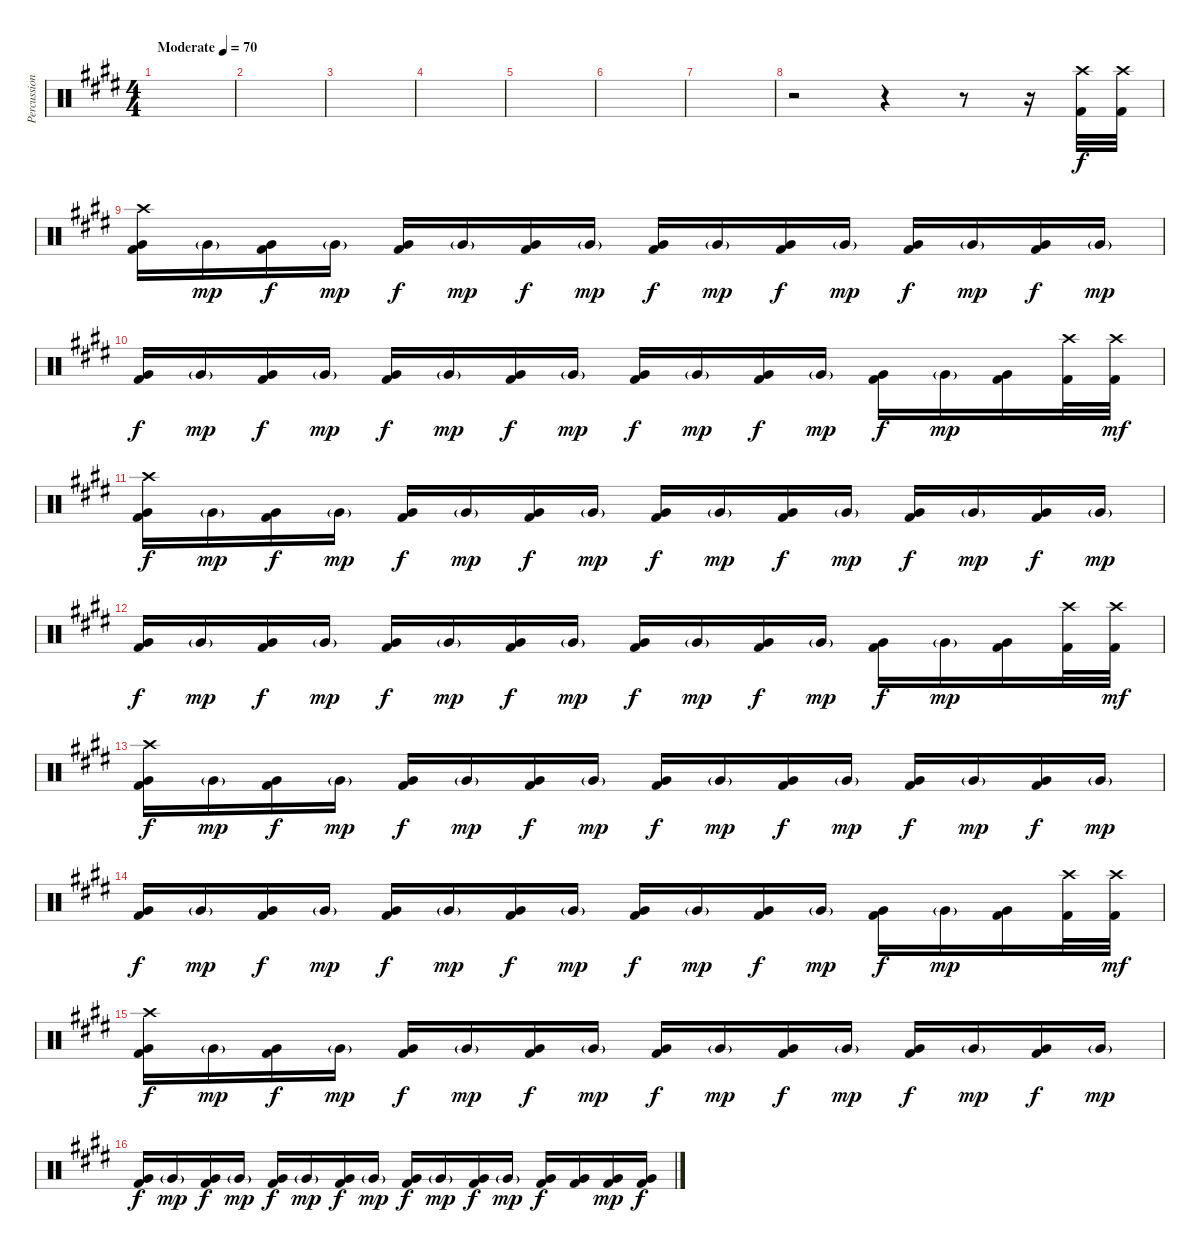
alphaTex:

\track ("Percussion" "Percussion") {instrument percussion}
\staff {score}
\articulation defaults
\ts (4 4)
\tempo (70 "Moderate")
\clef neutral
\ks e
|
|
|
|
|
|
|
r.2 r.4 r.8 r.16 ("Crash high (hit)" "Kick (hit) 2").32 ("Crash high (hit)" "Kick (hit) 2").32 |
("Crash high (hit)" "Very Low Tom (hit)" "Kick (hit) 2").16{dy f} "Very Low Tom (hit)"{g}.16{dy mp} ("Very Low Tom (hit)" "Kick (hit) 2").16{dy f} "Very Low Tom (hit)"{g}.16{dy mp} ("Very Low Tom (hit)" "Kick (hit) 2").16{dy f} "Very Low Tom (hit)"{g}.16{dy mp} ("Very Low Tom (hit)" "Kick (hit) 2").16{dy f} "Very Low Tom (hit)"{g}.16{dy mp} ("Very Low Tom (hit)" "Kick (hit) 2").16{dy f} "Very Low Tom (hit)"{g}.16{dy mp} ("Very Low Tom (hit)" "Kick (hit) 2").16{dy f} "Very Low Tom (hit)"{g}.16{dy mp} ("Very Low Tom (hit)" "Kick (hit) 2").16{dy f} "Very Low Tom (hit)"{g}.16{dy mp} ("Very Low Tom (hit)" "Kick (hit) 2").16{dy f} "Very Low Tom (hit)"{g}.16{dy mp} |
("Very Low Tom (hit)" "Kick (hit) 2").16{dy f} "Very Low Tom (hit)"{g}.16{dy mp} ("Very Low Tom (hit)" "Kick (hit) 2").16{dy f} "Very Low Tom (hit)"{g}.16{dy mp} ("Very Low Tom (hit)" "Kick (hit) 2").16{dy f} "Very Low Tom (hit)"{g}.16{dy mp} ("Very Low Tom (hit)" "Kick (hit) 2").16{dy f} "Very Low Tom (hit)"{g}.16{dy mp} ("Very Low Tom (hit)" "Kick (hit) 2").16{dy f} "Very Low Tom (hit)"{g}.16{dy mp} ("Very Low Tom (hit)" "Kick (hit) 2").16{dy f} "Very Low Tom (hit)"{g}.16{dy mp} ("Very Low Tom (hit)" "Kick (hit) 2").16{dy f} "Very Low Tom (hit)"{g}.16{dy mp} ("Very Low Tom (hit)" "Kick (hit) 2").16 ("Crash high (hit)" "Kick (hit) 2").32 ("Crash high (hit)" "Kick (hit) 2").32{dy mf} |
("Crash high (hit)" "Very Low Tom (hit)" "Kick (hit) 2").16{dy f} "Very Low Tom (hit)"{g}.16{dy mp} ("Very Low Tom (hit)" "Kick (hit) 2").16{dy f} "Very Low Tom (hit)"{g}.16{dy mp} ("Very Low Tom (hit)" "Kick (hit) 2").16{dy f} "Very Low Tom (hit)"{g}.16{dy mp} ("Very Low Tom (hit)" "Kick (hit) 2").16{dy f} "Very Low Tom (hit)"{g}.16{dy mp} ("Very Low Tom (hit)" "Kick (hit) 2").16{dy f} "Very Low Tom (hit)"{g}.16{dy mp} ("Very Low Tom (hit)" "Kick (hit) 2").16{dy f} "Very Low Tom (hit)"{g}.16{dy mp} ("Very Low Tom (hit)" "Kick (hit) 2").16{dy f} "Very Low Tom (hit)"{g}.16{dy mp} ("Very Low Tom (hit)" "Kick (hit) 2").16{dy f} "Very Low Tom (hit)"{g}.16{dy mp} |
("Very Low Tom (hit)" "Kick (hit) 2").16{dy f} "Very Low Tom (hit)"{g}.16{dy mp} ("Very Low Tom (hit)" "Kick (hit) 2").16{dy f} "Very Low Tom (hit)"{g}.16{dy mp} ("Very Low Tom (hit)" "Kick (hit) 2").16{dy f} "Very Low Tom (hit)"{g}.16{dy mp} ("Very Low Tom (hit)" "Kick (hit) 2").16{dy f} "Very Low Tom (hit)"{g}.16{dy mp} ("Very Low Tom (hit)" "Kick (hit) 2").16{dy f} "Very Low Tom (hit)"{g}.16{dy mp} ("Very Low Tom (hit)" "Kick (hit) 2").16{dy f} "Very Low Tom (hit)"{g}.16{dy mp} ("Very Low Tom (hit)" "Kick (hit) 2").16{dy f} "Very Low Tom (hit)"{g}.16{dy mp} ("Very Low Tom (hit)" "Kick (hit) 2").16 ("Crash high (hit)" "Kick (hit) 2").32 ("Crash high (hit)" "Kick (hit) 2").32{dy mf} |
("Crash high (hit)" "Very Low Tom (hit)" "Kick (hit) 2").16{dy f} "Very Low Tom (hit)"{g}.16{dy mp} ("Very Low Tom (hit)" "Kick (hit) 2").16{dy f} "Very Low Tom (hit)"{g}.16{dy mp} ("Very Low Tom (hit)" "Kick (hit) 2").16{dy f} "Very Low Tom (hit)"{g}.16{dy mp} ("Very Low Tom (hit)" "Kick (hit) 2").16{dy f} "Very Low Tom (hit)"{g}.16{dy mp} ("Very Low Tom (hit)" "Kick (hit) 2").16{dy f} "Very Low Tom (hit)"{g}.16{dy mp} ("Very Low Tom (hit)" "Kick (hit) 2").16{dy f} "Very Low Tom (hit)"{g}.16{dy mp} ("Very Low Tom (hit)" "Kick (hit) 2").16{dy f} "Very Low Tom (hit)"{g}.16{dy mp} ("Very Low Tom (hit)" "Kick (hit) 2").16{dy f} "Very Low Tom (hit)"{g}.16{dy mp} |
("Very Low Tom (hit)" "Kick (hit) 2").16{dy f} "Very Low Tom (hit)"{g}.16{dy mp} ("Very Low Tom (hit)" "Kick (hit) 2").16{dy f} "Very Low Tom (hit)"{g}.16{dy mp} ("Very Low Tom (hit)" "Kick (hit) 2").16{dy f} "Very Low Tom (hit)"{g}.16{dy mp} ("Very Low Tom (hit)" "Kick (hit) 2").16{dy f} "Very Low Tom (hit)"{g}.16{dy mp} ("Very Low Tom (hit)" "Kick (hit) 2").16{dy f} "Very Low Tom (hit)"{g}.16{dy mp} ("Very Low Tom (hit)" "Kick (hit) 2").16{dy f} "Very Low Tom (hit)"{g}.16{dy mp} ("Very Low Tom (hit)" "Kick (hit) 2").16{dy f} "Very Low Tom (hit)"{g}.16{dy mp} ("Very Low Tom (hit)" "Kick (hit) 2").16 ("Crash high (hit)" "Kick (hit) 2").32 ("Crash high (hit)" "Kick (hit) 2").32{dy mf} |
("Crash high (hit)" "Very Low Tom (hit)" "Kick (hit) 2").16{dy f} "Very Low Tom (hit)"{g}.16{dy mp} ("Very Low Tom (hit)" "Kick (hit) 2").16{dy f} "Very Low Tom (hit)"{g}.16{dy mp} ("Very Low Tom (hit)" "Kick (hit) 2").16{dy f} "Very Low Tom (hit)"{g}.16{dy mp} ("Very Low Tom (hit)" "Kick (hit) 2").16{dy f} "Very Low Tom (hit)"{g}.16{dy mp} ("Very Low Tom (hit)" "Kick (hit) 2").16{dy f} "Very Low Tom (hit)"{g}.16{dy mp} ("Very Low Tom (hit)" "Kick (hit) 2").16{dy f} "Very Low Tom (hit)"{g}.16{dy mp} ("Very Low Tom (hit)" "Kick (hit) 2").16{dy f} "Very Low Tom (hit)"{g}.16{dy mp} ("Very Low Tom (hit)" "Kick (hit) 2").16{dy f} "Very Low Tom (hit)"{g}.16{dy mp} |
("Very Low Tom (hit)" "Kick (hit) 2").16{dy f} "Very Low Tom (hit)"{g}.16{dy mp} ("Very Low Tom (hit)" "Kick (hit) 2").16{dy f} "Very Low Tom (hit)"{g}.16{dy mp} ("Very Low Tom (hit)" "Kick (hit) 2").16{dy f} "Very Low Tom (hit)"{g}.16{dy mp} ("Very Low Tom (hit)" "Kick (hit) 2").16{dy f} "Very Low Tom (hit)"{g}.16{dy mp} ("Very Low Tom (hit)" "Kick (hit) 2").16{dy f} "Very Low Tom (hit)"{g}.16{dy mp} ("Very Low Tom (hit)" "Kick (hit) 2").16{dy f} "Very Low Tom (hit)"{g}.16{dy mp} ("Very Low Tom (hit)" "Kick (hit) 2").16{dy f} ("Very Low Tom (hit)" "Kick (hit) 2").16 ("Very Low Tom (hit)" "Kick (hit) 2").16{dy mp} ("Very Low Tom (hit)" "Kick (hit) 2").16{dy f}
